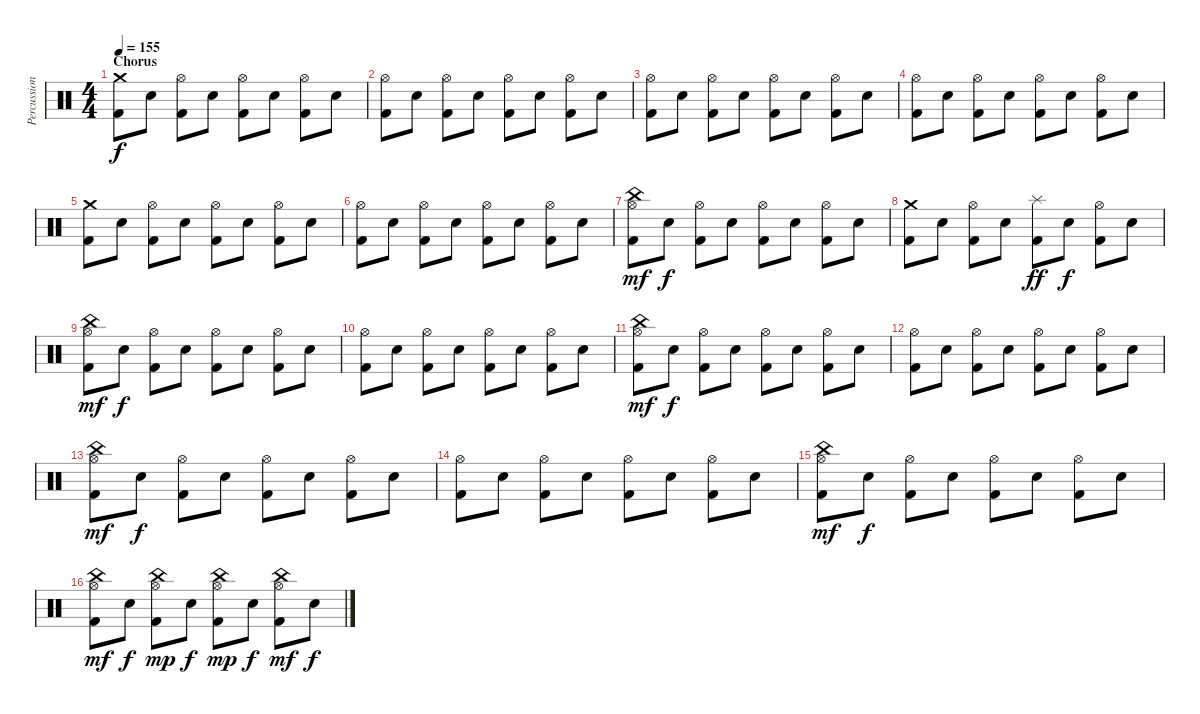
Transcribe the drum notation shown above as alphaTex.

\track ("Percussion" "Percussion") {instrument percussion}
\staff {score}
\articulation defaults
\ts (4 4)
\section ("" "Chorus")
\tempo 155
\clef neutral
\ks c
("Crash medium (hit)" "Kick (hit) 2").8{dy f} "Electric Snare (hit)".8 ("Hi-Hat (open)" "Kick (hit) 2").8 "Electric Snare (hit)".8 ("Hi-Hat (open)" "Kick (hit) 2").8 "Electric Snare (hit)".8 ("Hi-Hat (open)" "Kick (hit) 2").8 "Electric Snare (hit)".8 |
("Hi-Hat (open)" "Kick (hit) 2").8 "Electric Snare (hit)".8 ("Hi-Hat (open)" "Kick (hit) 2").8 "Electric Snare (hit)".8 ("Hi-Hat (open)" "Kick (hit) 2").8 "Electric Snare (hit)".8 ("Hi-Hat (open)" "Kick (hit) 2").8 "Electric Snare (hit)".8 |
("Hi-Hat (open)" "Kick (hit) 2").8 "Electric Snare (hit)".8 ("Hi-Hat (open)" "Kick (hit) 2").8 "Electric Snare (hit)".8 ("Hi-Hat (open)" "Kick (hit) 2").8 "Electric Snare (hit)".8 ("Hi-Hat (open)" "Kick (hit) 2").8 "Electric Snare (hit)".8 |
("Hi-Hat (open)" "Kick (hit) 2").8 "Electric Snare (hit)".8 ("Hi-Hat (open)" "Kick (hit) 2").8 "Electric Snare (hit)".8 ("Hi-Hat (open)" "Kick (hit) 2").8 "Electric Snare (hit)".8 ("Hi-Hat (open)" "Kick (hit) 2").8 "Electric Snare (hit)".8 |
("Crash medium (hit)" "Kick (hit) 2").8 "Electric Snare (hit)".8 ("Hi-Hat (open)" "Kick (hit) 2").8 "Electric Snare (hit)".8 ("Hi-Hat (open)" "Kick (hit) 2").8 "Electric Snare (hit)".8 ("Hi-Hat (open)" "Kick (hit) 2").8 "Electric Snare (hit)".8 |
("Hi-Hat (open)" "Kick (hit) 2").8 "Electric Snare (hit)".8 ("Hi-Hat (open)" "Kick (hit) 2").8 "Electric Snare (hit)".8 ("Hi-Hat (open)" "Kick (hit) 2").8 "Electric Snare (hit)".8 ("Hi-Hat (open)" "Kick (hit) 2").8 "Electric Snare (hit)".8 |
("China (hit)" "Hi-Hat (open)" "Kick (hit) 2").8{dy mf} "Electric Snare (hit)".8{dy f} ("Hi-Hat (open)" "Kick (hit) 2").8 "Electric Snare (hit)".8 ("Hi-Hat (open)" "Kick (hit) 2").8 "Electric Snare (hit)".8 ("Hi-Hat (open)" "Kick (hit) 2").8 "Electric Snare (hit)".8 |
("Crash medium (hit)" "Kick (hit) 2").8 "Electric Snare (hit)".8 ("Hi-Hat (open)" "Kick (hit) 2").8 "Electric Snare (hit)".8 ("Splash (hit)" "Kick (hit) 2").8{dy ff} "Electric Snare (hit)".8{dy f} ("Hi-Hat (open)" "Kick (hit) 2").8 "Electric Snare (hit)".8 |
("Hi-Hat (open)" "China (hit)" "Kick (hit) 2").8{dy mf} "Electric Snare (hit)".8{dy f} ("Hi-Hat (open)" "Kick (hit) 2").8 "Electric Snare (hit)".8 ("Hi-Hat (open)" "Kick (hit) 2").8 "Electric Snare (hit)".8 ("Hi-Hat (open)" "Kick (hit) 2").8 "Electric Snare (hit)".8 |
("Hi-Hat (open)" "Kick (hit) 2").8 "Electric Snare (hit)".8 ("Hi-Hat (open)" "Kick (hit) 2").8 "Electric Snare (hit)".8 ("Hi-Hat (open)" "Kick (hit) 2").8 "Electric Snare (hit)".8 ("Hi-Hat (open)" "Kick (hit) 2").8 "Electric Snare (hit)".8 |
("Hi-Hat (open)" "China (hit)" "Kick (hit) 2").8{dy mf} "Electric Snare (hit)".8{dy f} ("Hi-Hat (open)" "Kick (hit) 2").8 "Electric Snare (hit)".8 ("Hi-Hat (open)" "Kick (hit) 2").8 "Electric Snare (hit)".8 ("Hi-Hat (open)" "Kick (hit) 2").8 "Electric Snare (hit)".8 |
("Hi-Hat (open)" "Kick (hit) 2").8 "Electric Snare (hit)".8 ("Hi-Hat (open)" "Kick (hit) 2").8 "Electric Snare (hit)".8 ("Hi-Hat (open)" "Kick (hit) 2").8 "Electric Snare (hit)".8 ("Hi-Hat (open)" "Kick (hit) 2").8 "Electric Snare (hit)".8 |
("Hi-Hat (open)" "China (hit)" "Kick (hit) 2").8{dy mf} "Electric Snare (hit)".8{dy f} ("Hi-Hat (open)" "Kick (hit) 2").8 "Electric Snare (hit)".8 ("Hi-Hat (open)" "Kick (hit) 2").8 "Electric Snare (hit)".8 ("Hi-Hat (open)" "Kick (hit) 2").8 "Electric Snare (hit)".8 |
("Hi-Hat (open)" "Kick (hit) 2").8 "Electric Snare (hit)".8 ("Hi-Hat (open)" "Kick (hit) 2").8 "Electric Snare (hit)".8 ("Hi-Hat (open)" "Kick (hit) 2").8 "Electric Snare (hit)".8 ("Hi-Hat (open)" "Kick (hit) 2").8 "Electric Snare (hit)".8 |
("Hi-Hat (open)" "China (hit)" "Kick (hit) 2").8{dy mf} "Electric Snare (hit)".8{dy f} ("Hi-Hat (open)" "Kick (hit) 2").8 "Electric Snare (hit)".8 ("Hi-Hat (open)" "Kick (hit) 2").8 "Electric Snare (hit)".8 ("Hi-Hat (open)" "Kick (hit) 2").8 "Electric Snare (hit)".8 |
("Hi-Hat (open)" "China (hit)" "Kick (hit) 2").8{dy mf} "Electric Snare (hit)".8{dy f} ("Hi-Hat (open)" "China (hit)" "Kick (hit) 2").8{dy mp} "Electric Snare (hit)".8{dy f} ("Hi-Hat (open)" "China (hit)" "Kick (hit) 2").8{dy mp} "Electric Snare (hit)".8{dy f} ("Hi-Hat (open)" "China (hit)" "Kick (hit) 2").8{dy mf} "Electric Snare (hit)".8{dy f}
